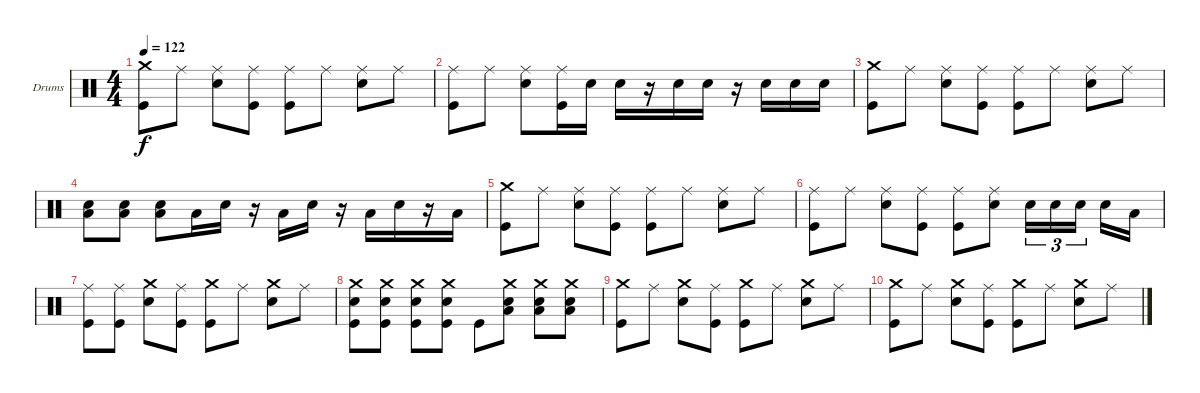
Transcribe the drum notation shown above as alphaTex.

\bracketExtendMode groupsimilarinstruments
\firstSystemTrackNameOrientation horizontal
\otherSystemsTrackNameOrientation horizontal
\track ("Drumkit" "Drums") {instrument percussion}
\staff {score}
\articulation defaults
\ts (4 4)
\tempo 122
\clef neutral
\ks c
("Crash medium (hit)" "Kick (hit)").8{dy f} "Ride (middle)".8 ("Ride (middle)" "Snare (hit) 2").8 ("Ride (middle)" "Kick (hit)").8 ("Ride (middle)" "Kick (hit)").8 "Ride (middle)".8 ("Ride (middle)" "Snare (hit) 2").8 "Ride (middle)".8 |
("Ride (middle)" "Kick (hit)").8 "Ride (middle)".8 ("Ride (middle)" "Snare (hit) 2").8 ("Ride (middle)" "Kick (hit)").16 "Snare (hit) 2".16 "Snare (hit) 2".16 r.16 "Snare (hit) 2".16 "Snare (hit) 2".16 r.16 "Snare (hit) 2".16 "Snare (hit) 2".16 "Snare (hit) 2".16 |
("Crash medium (hit)" "Kick (hit)").8 "Ride (middle)".8 ("Ride (middle)" "Snare (hit) 2").8 ("Ride (middle)" "Kick (hit)").8 ("Ride (middle)" "Kick (hit)").8 "Ride (middle)".8 ("Ride (middle)" "Snare (hit) 2").8 "Ride (middle)".8 |
("Low Tom (hit)" "Snare (hit) 2").8 ("Low Tom (hit)" "Snare (hit) 2").8 ("Low Tom (hit)" "Snare (hit) 2").8 "Low Tom (hit)".16 "Snare (hit) 2".16 r.16 "Low Tom (hit)".16 "Snare (hit) 2".16 r.16 "Low Tom (hit)".16 "Snare (hit) 2".16 r.16 "Low Tom (hit)".16 |
("Crash medium (hit)" "Kick (hit)").8 "Ride (middle)".8 ("Ride (middle)" "Snare (hit) 2").8 ("Ride (middle)" "Kick (hit)").8 ("Ride (middle)" "Kick (hit)").8 "Ride (middle)".8 ("Ride (middle)" "Snare (hit) 2").8 "Ride (middle)".8 |
("Ride (middle)" "Kick (hit)").8 "Ride (middle)".8 ("Ride (middle)" "Snare (hit) 2").8 ("Ride (middle)" "Kick (hit)").8 ("Ride (middle)" "Kick (hit)").8 ("Ride (middle)" "Snare (hit) 2").8 "Snare (hit) 2".16{tu (3 2)} "Snare (hit) 2".16{tu (3 2)} "Snare (hit) 2".16{tu (3 2)} "Snare (hit) 2".16 "Low Tom (hit)".16 |
("Ride (middle)" "Kick (hit)").8 ("Ride (middle)" "Kick (hit)").8 ("Crash medium (hit)" "Snare (hit) 2").8 ("Ride (middle)" "Kick (hit)").8 ("Crash medium (hit)" "Kick (hit)").8 "Ride (middle)".8 ("Crash medium (hit)" "Snare (hit) 2").8 "Ride (middle)".8 |
("Crash medium (hit)" "Snare (hit) 2" "Kick (hit)").8 ("Crash medium (hit)" "Snare (hit) 2" "Kick (hit)").8 ("Crash medium (hit)" "Snare (hit) 2" "Kick (hit)").8 ("Crash medium (hit)" "Snare (hit) 2" "Kick (hit)").8 "Kick (hit)".8 ("Crash medium (hit)" "Low Tom (hit)" "Snare (hit) 2").8 ("Crash medium (hit)" "Low Tom (hit)" "Snare (hit) 2").8 ("Crash medium (hit)" "Low Tom (hit)" "Snare (hit) 2").8 |
("Crash medium (hit)" "Kick (hit)").8 "Ride (middle)".8 ("Crash medium (hit)" "Snare (hit) 2").8 ("Ride (middle)" "Kick (hit)").8 ("Crash medium (hit)" "Kick (hit)").8 "Ride (middle)".8 ("Crash medium (hit)" "Snare (hit) 2").8 "Ride (middle)".8 |
("Crash medium (hit)" "Kick (hit)").8 "Ride (middle)".8 ("Crash medium (hit)" "Snare (hit) 2").8 ("Ride (middle)" "Kick (hit)").8 ("Crash medium (hit)" "Kick (hit)").8 "Ride (middle)".8 ("Crash medium (hit)" "Snare (hit) 2").8 "Ride (middle)".8
